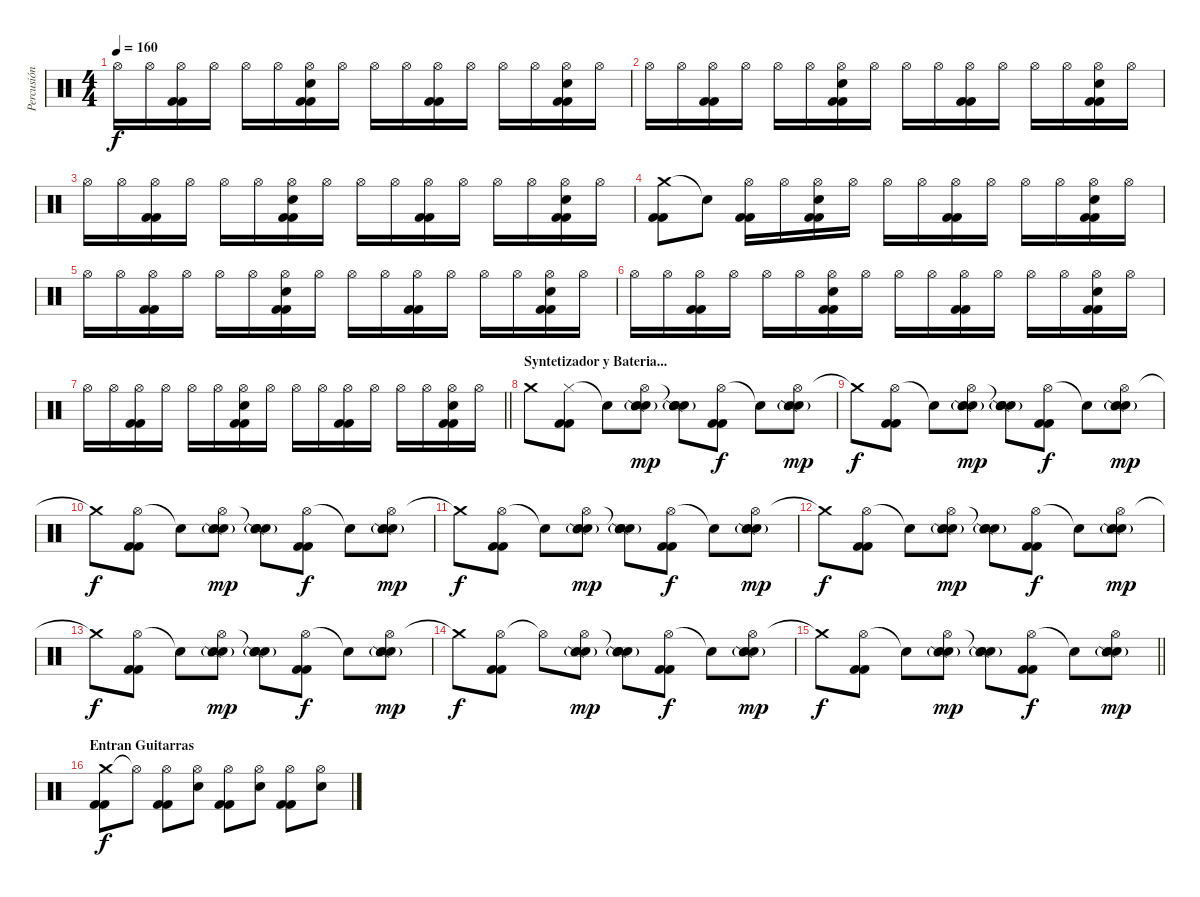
\track ("Percusión" "Percusión") {instrument percussion}
\staff {score}
\articulation defaults
\ts (4 4)
\tempo 160
\clef neutral
\ks c "Hi-Hat (open)".16{dy f} "Hi-Hat (open)".16
("Hi-Hat (open)" "Kick (hit) 2" "Kick (hit) 2").16 "Hi-Hat (open)".16 "Hi-Hat (open)".16 "Hi-Hat (open)".16 ("Hi-Hat (open)" "Electric Snare (hit)" "Kick (hit) 2" "Kick (hit) 2").16 "Hi-Hat (open)".16 "Hi-Hat (open)".16 "Hi-Hat (open)".16 ("Hi-Hat (open)" "Kick (hit) 2" "Kick (hit) 2").16 "Hi-Hat (open)".16 "Hi-Hat (open)".16 "Hi-Hat (open)".16 ("Hi-Hat (open)" "Electric Snare (hit)" "Kick (hit) 2" "Kick (hit) 2").16 "Hi-Hat (open)".16 |
"Hi-Hat (open)".16 "Hi-Hat (open)".16 ("Hi-Hat (open)" "Kick (hit) 2" "Kick (hit) 2").16 "Hi-Hat (open)".16 "Hi-Hat (open)".16 "Hi-Hat (open)".16 ("Hi-Hat (open)" "Electric Snare (hit)" "Kick (hit) 2" "Kick (hit) 2").16 "Hi-Hat (open)".16 "Hi-Hat (open)".16 "Hi-Hat (open)".16 ("Hi-Hat (open)" "Kick (hit) 2" "Kick (hit) 2").16 "Hi-Hat (open)".16 "Hi-Hat (open)".16 "Hi-Hat (open)".16 ("Hi-Hat (open)" "Electric Snare (hit)" "Kick (hit) 2" "Kick (hit) 2").16 "Hi-Hat (open)".16 |
"Hi-Hat (open)".16 "Hi-Hat (open)".16 ("Hi-Hat (open)" "Kick (hit) 2" "Kick (hit) 2").16 "Hi-Hat (open)".16 "Hi-Hat (open)".16 "Hi-Hat (open)".16 ("Hi-Hat (open)" "Electric Snare (hit)" "Kick (hit) 2" "Kick (hit) 2").16 "Hi-Hat (open)".16 "Hi-Hat (open)".16 "Hi-Hat (open)".16 ("Hi-Hat (open)" "Kick (hit) 2" "Kick (hit) 2").16 "Hi-Hat (open)".16 "Hi-Hat (open)".16 "Hi-Hat (open)".16 ("Hi-Hat (open)" "Electric Snare (hit)" "Kick (hit) 2" "Kick (hit) 2").16 "Hi-Hat (open)".16 |
("Crash medium (hit)" "Kick (hit) 2" "Kick (hit) 2").8 "Snare (hit)"{t}.8 ("Hi-Hat (open)" "Kick (hit) 2" "Kick (hit) 2").16 "Hi-Hat (open)".16 ("Hi-Hat (open)" "Electric Snare (hit)" "Kick (hit) 2" "Kick (hit) 2").16 "Hi-Hat (open)".16 "Hi-Hat (open)".16 "Hi-Hat (open)".16 ("Hi-Hat (open)" "Kick (hit) 2" "Kick (hit) 2").16 "Hi-Hat (open)".16 "Hi-Hat (open)".16 "Hi-Hat (open)".16 ("Hi-Hat (open)" "Electric Snare (hit)" "Kick (hit) 2" "Kick (hit) 2").16 "Hi-Hat (open)".16 |
"Hi-Hat (open)".16 "Hi-Hat (open)".16 ("Hi-Hat (open)" "Kick (hit) 2" "Kick (hit) 2").16 "Hi-Hat (open)".16 "Hi-Hat (open)".16 "Hi-Hat (open)".16 ("Hi-Hat (open)" "Electric Snare (hit)" "Kick (hit) 2" "Kick (hit) 2").16 "Hi-Hat (open)".16 "Hi-Hat (open)".16 "Hi-Hat (open)".16 ("Hi-Hat (open)" "Kick (hit) 2" "Kick (hit) 2").16 "Hi-Hat (open)".16 "Hi-Hat (open)".16 "Hi-Hat (open)".16 ("Hi-Hat (open)" "Electric Snare (hit)" "Kick (hit) 2" "Kick (hit) 2").16 "Hi-Hat (open)".16 |
"Hi-Hat (open)".16 "Hi-Hat (open)".16 ("Hi-Hat (open)" "Kick (hit) 2" "Kick (hit) 2").16 "Hi-Hat (open)".16 "Hi-Hat (open)".16 "Hi-Hat (open)".16 ("Hi-Hat (open)" "Electric Snare (hit)" "Kick (hit) 2" "Kick (hit) 2").16 "Hi-Hat (open)".16 "Hi-Hat (open)".16 "Hi-Hat (open)".16 ("Hi-Hat (open)" "Kick (hit) 2" "Kick (hit) 2").16 "Hi-Hat (open)".16 "Hi-Hat (open)".16 "Hi-Hat (open)".16 ("Hi-Hat (open)" "Electric Snare (hit)" "Kick (hit) 2" "Kick (hit) 2").16 "Hi-Hat (open)".16 |
\barLineRight lightlight "Hi-Hat (open)".16 "Hi-Hat (open)".16
("Hi-Hat (open)" "Kick (hit) 2" "Kick (hit) 2").16 "Hi-Hat (open)".16 "Hi-Hat (open)".16 "Hi-Hat (open)".16 ("Hi-Hat (open)" "Electric Snare (hit)" "Kick (hit) 2" "Kick (hit) 2").16 "Hi-Hat (open)".16 "Hi-Hat (open)".16 "Hi-Hat (open)".16 ("Hi-Hat (open)" "Kick (hit) 2" "Kick (hit) 2").16 "Hi-Hat (open)".16 "Hi-Hat (open)".16 "Hi-Hat (open)".16 ("Hi-Hat (open)" "Electric Snare (hit)" "Kick (hit) 2" "Kick (hit) 2").16 "Hi-Hat (open)".16 |
\section ("" "Syntetizador y Bateria...")
"Crash medium (hit)".8 ("Hi-Hat (closed)" "Kick (hit) 2" "Kick (hit) 2").8 "Snare (hit)"{t}.8 ("Hi-Hat (open)" "Hand Clap (hit)" "Snare (side stick) 2" "Electric Snare (hit)"{g}).8{dy mp} ("Snare (hit)"{t} "Hand Clap (hit)" "Snare (side stick) 2" "Electric Snare (hit)"{g}).8 ("Hi-Hat (open)" "Kick (hit) 2" "Kick (hit) 2").8{dy f} "Snare (hit)"{t}.8 ("Hi-Hat (open)" "Hand Clap (hit)" "Snare (side stick) 2" "Electric Snare (hit)"{g}).8{dy mp} |
"Crash medium (hit)"{t}.8{dy f} ("Hi-Hat (open)" "Kick (hit) 2" "Kick (hit) 2").8 "Snare (hit)"{t}.8 ("Hi-Hat (open)" "Hand Clap (hit)" "Snare (side stick) 2" "Electric Snare (hit)"{g}).8{dy mp} ("Snare (hit)"{t} "Hand Clap (hit)" "Snare (side stick) 2" "Electric Snare (hit)"{g}).8 ("Hi-Hat (open)" "Kick (hit) 2" "Kick (hit) 2").8{dy f} "Snare (hit)"{t}.8 ("Hi-Hat (open)" "Hand Clap (hit)" "Snare (side stick) 2" "Electric Snare (hit)"{g}).8{dy mp} |
"Crash medium (hit)"{t}.8{dy f} ("Hi-Hat (open)" "Kick (hit) 2" "Kick (hit) 2").8 "Snare (hit)"{t}.8 ("Hi-Hat (open)" "Hand Clap (hit)" "Snare (side stick) 2" "Electric Snare (hit)"{g}).8{dy mp} ("Snare (hit)"{t} "Hand Clap (hit)" "Snare (side stick) 2" "Electric Snare (hit)"{g}).8 ("Hi-Hat (open)" "Kick (hit) 2" "Kick (hit) 2").8{dy f} "Snare (hit)"{t}.8 ("Hi-Hat (open)" "Hand Clap (hit)" "Snare (side stick) 2" "Electric Snare (hit)"{g}).8{dy mp} |
"Crash medium (hit)"{t}.8{dy f} ("Hi-Hat (open)" "Kick (hit) 2" "Kick (hit) 2").8 "Snare (hit)"{t}.8 ("Hi-Hat (open)" "Hand Clap (hit)" "Snare (side stick) 2" "Electric Snare (hit)"{g}).8{dy mp} ("Snare (hit)"{t} "Hand Clap (hit)" "Snare (side stick) 2" "Electric Snare (hit)"{g}).8 ("Hi-Hat (open)" "Kick (hit) 2" "Kick (hit) 2").8{dy f} "Snare (hit)"{t}.8 ("Hi-Hat (open)" "Hand Clap (hit)" "Snare (side stick) 2" "Electric Snare (hit)"{g}).8{dy mp} |
"Crash medium (hit)"{t}.8{dy f} ("Hi-Hat (open)" "Kick (hit) 2" "Kick (hit) 2").8 "Snare (hit)"{t}.8 ("Hi-Hat (open)" "Hand Clap (hit)" "Snare (side stick) 2" "Electric Snare (hit)"{g}).8{dy mp} ("Snare (hit)"{t} "Hand Clap (hit)" "Snare (side stick) 2" "Electric Snare (hit)"{g}).8 ("Hi-Hat (open)" "Kick (hit) 2" "Kick (hit) 2").8{dy f} "Snare (hit)"{t}.8 ("Hi-Hat (open)" "Hand Clap (hit)" "Snare (side stick) 2" "Electric Snare (hit)"{g}).8{dy mp} |
"Crash medium (hit)"{t}.8{dy f} ("Hi-Hat (open)" "Kick (hit) 2" "Kick (hit) 2").8 "Snare (hit)"{t}.8 ("Hi-Hat (open)" "Hand Clap (hit)" "Snare (side stick) 2" "Electric Snare (hit)"{g}).8{dy mp} ("Snare (hit)"{t} "Hand Clap (hit)" "Snare (side stick) 2" "Electric Snare (hit)"{g}).8 ("Hi-Hat (open)" "Kick (hit) 2" "Kick (hit) 2").8{dy f} "Snare (hit)"{t}.8 ("Hi-Hat (open)" "Hand Clap (hit)" "Snare (side stick) 2" "Electric Snare (hit)"{g}).8{dy mp} |
"Crash medium (hit)"{t}.8{dy f} ("Hi-Hat (open)" "Kick (hit) 2" "Kick (hit) 2").8 "Hi-Hat (open)"{t}.8 ("Hi-Hat (open)" "Hand Clap (hit)" "Snare (side stick) 2" "Electric Snare (hit)"{g}).8{dy mp} ("Snare (hit)"{t} "Hand Clap (hit)" "Snare (side stick) 2" "Electric Snare (hit)"{g}).8 ("Hi-Hat (open)" "Kick (hit) 2" "Kick (hit) 2").8{dy f} "Snare (hit)"{t}.8 ("Hi-Hat (open)" "Hand Clap (hit)" "Snare (side stick) 2" "Electric Snare (hit)"{g}).8{dy mp} |
\barLineRight lightlight "Crash medium (hit)"{t}.8{dy f}
("Hi-Hat (open)" "Kick (hit) 2" "Kick (hit) 2").8 "Snare (hit)"{t}.8 ("Hi-Hat (open)" "Hand Clap (hit)" "Snare (side stick) 2" "Electric Snare (hit)"{g}).8{dy mp} ("Snare (hit)"{t} "Hand Clap (hit)" "Snare (side stick) 2" "Electric Snare (hit)"{g}).8 ("Hi-Hat (open)" "Kick (hit) 2" "Kick (hit) 2").8{dy f} "Snare (hit)"{t}.8 ("Hi-Hat (open)" "Hand Clap (hit)" "Snare (side stick) 2" "Electric Snare (hit)"{g}).8{dy mp} |
\section ("" "Entran Guitarras")
("Crash medium (hit)" "Kick (hit) 2" "Kick (hit) 2").8{dy f} "Hi-Hat (open)"{t}.8 ("Hi-Hat (open)" "Kick (hit) 2" "Kick (hit) 2").8 ("Hi-Hat (open)" "Electric Snare (hit)").8 ("Hi-Hat (open)" "Kick (hit) 2" "Kick (hit) 2").8 ("Hi-Hat (open)" "Electric Snare (hit)").8 ("Hi-Hat (open)" "Kick (hit) 2" "Kick (hit) 2").8 ("Hi-Hat (open)" "Electric Snare (hit)").8
